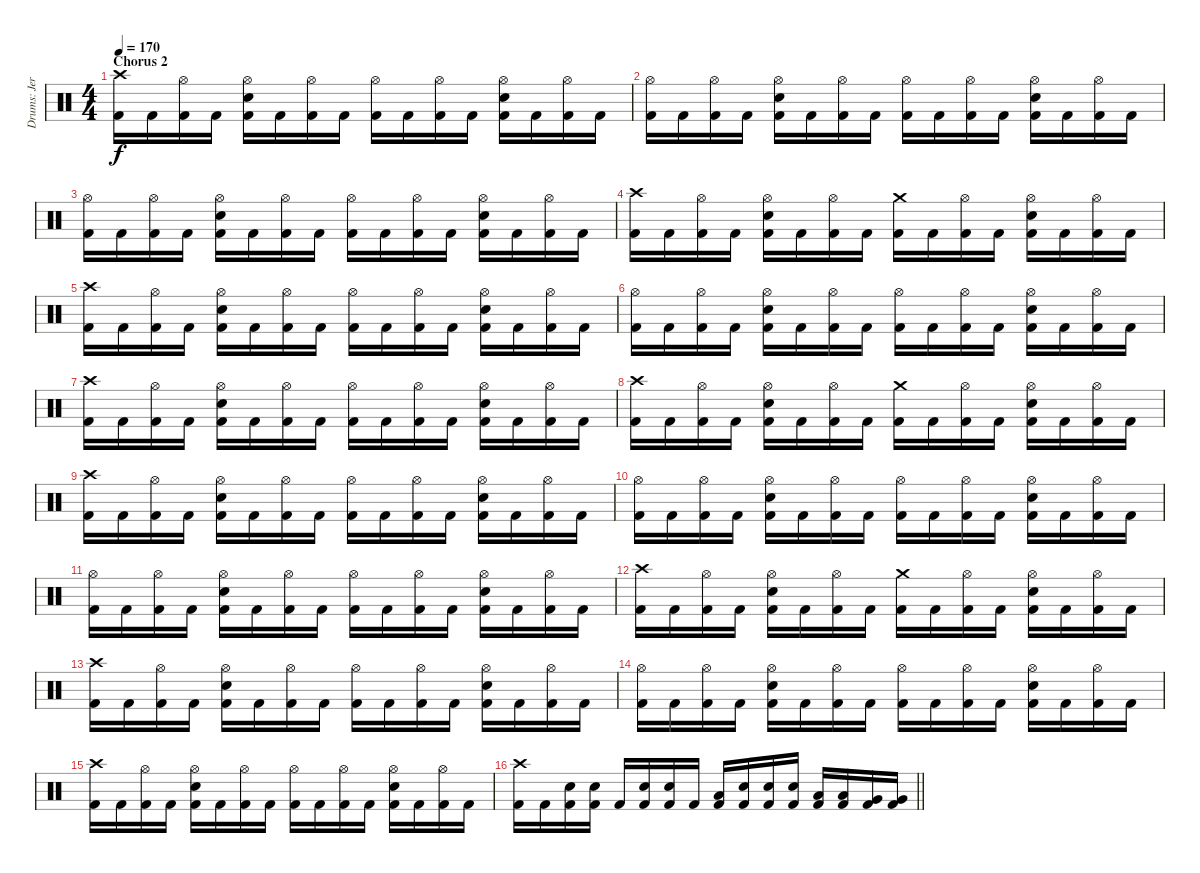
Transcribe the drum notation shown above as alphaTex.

\track ("Drums: Jere Luokkamäki" "Drums: Jer") {instrument percussion}
\staff {score}
\articulation defaults
\ts (4 4)
\section ("" "Chorus 2")
\tempo 170
\clef neutral
\ks aminor
("Crash high (hit)" "Kick (hit) 2").16{dy f} "Kick (hit) 2".16 ("Hi-Hat (open)" "Kick (hit) 2").16 "Kick (hit) 2".16 ("Hi-Hat (open)" "Electric Snare (hit)" "Kick (hit) 2").16 "Kick (hit) 2".16 ("Hi-Hat (open)" "Kick (hit) 2").16 "Kick (hit) 2".16 ("Hi-Hat (open)" "Kick (hit) 2").16 "Kick (hit) 2".16 ("Hi-Hat (open)" "Kick (hit) 2").16 "Kick (hit) 2".16 ("Hi-Hat (open)" "Electric Snare (hit)" "Kick (hit) 2").16 "Kick (hit) 2".16 ("Hi-Hat (open)" "Kick (hit) 2").16 "Kick (hit) 2".16 |
("Hi-Hat (open)" "Kick (hit) 2").16 "Kick (hit) 2".16 ("Hi-Hat (open)" "Kick (hit) 2").16 "Kick (hit) 2".16 ("Hi-Hat (open)" "Electric Snare (hit)" "Kick (hit) 2").16 "Kick (hit) 2".16 ("Hi-Hat (open)" "Kick (hit) 2").16 "Kick (hit) 2".16 ("Hi-Hat (open)" "Kick (hit) 2").16 "Kick (hit) 2".16 ("Hi-Hat (open)" "Kick (hit) 2").16 "Kick (hit) 2".16 ("Hi-Hat (open)" "Electric Snare (hit)" "Kick (hit) 2").16 "Kick (hit) 2".16 ("Hi-Hat (open)" "Kick (hit) 2").16 "Kick (hit) 2".16 |
("Hi-Hat (open)" "Kick (hit) 2").16 "Kick (hit) 2".16 ("Hi-Hat (open)" "Kick (hit) 2").16 "Kick (hit) 2".16 ("Hi-Hat (open)" "Electric Snare (hit)" "Kick (hit) 2").16 "Kick (hit) 2".16 ("Hi-Hat (open)" "Kick (hit) 2").16 "Kick (hit) 2".16 ("Hi-Hat (open)" "Kick (hit) 2").16 "Kick (hit) 2".16 ("Hi-Hat (open)" "Kick (hit) 2").16 "Kick (hit) 2".16 ("Hi-Hat (open)" "Electric Snare (hit)" "Kick (hit) 2").16 "Kick (hit) 2".16 ("Hi-Hat (open)" "Kick (hit) 2").16 "Kick (hit) 2".16 |
("Crash high (hit)" "Kick (hit) 2").16 "Kick (hit) 2".16 ("Hi-Hat (open)" "Kick (hit) 2").16 "Kick (hit) 2".16 ("Hi-Hat (open)" "Electric Snare (hit)" "Kick (hit) 2").16 "Kick (hit) 2".16 ("Hi-Hat (open)" "Kick (hit) 2").16 "Kick (hit) 2".16 ("Crash medium (hit)" "Kick (hit) 2").16 "Kick (hit) 2".16 ("Hi-Hat (open)" "Kick (hit) 2").16 "Kick (hit) 2".16 ("Hi-Hat (open)" "Electric Snare (hit)" "Kick (hit) 2").16 "Kick (hit) 2".16 ("Hi-Hat (open)" "Kick (hit) 2").16 "Kick (hit) 2".16 |
("Crash high (hit)" "Kick (hit) 2").16 "Kick (hit) 2".16 ("Hi-Hat (open)" "Kick (hit) 2").16 "Kick (hit) 2".16 ("Hi-Hat (open)" "Electric Snare (hit)" "Kick (hit) 2").16 "Kick (hit) 2".16 ("Hi-Hat (open)" "Kick (hit) 2").16 "Kick (hit) 2".16 ("Hi-Hat (open)" "Kick (hit) 2").16 "Kick (hit) 2".16 ("Hi-Hat (open)" "Kick (hit) 2").16 "Kick (hit) 2".16 ("Hi-Hat (open)" "Electric Snare (hit)" "Kick (hit) 2").16 "Kick (hit) 2".16 ("Hi-Hat (open)" "Kick (hit) 2").16 "Kick (hit) 2".16 |
("Hi-Hat (open)" "Kick (hit) 2").16 "Kick (hit) 2".16 ("Hi-Hat (open)" "Kick (hit) 2").16 "Kick (hit) 2".16 ("Hi-Hat (open)" "Electric Snare (hit)" "Kick (hit) 2").16 "Kick (hit) 2".16 ("Hi-Hat (open)" "Kick (hit) 2").16 "Kick (hit) 2".16 ("Hi-Hat (open)" "Kick (hit) 2").16 "Kick (hit) 2".16 ("Hi-Hat (open)" "Kick (hit) 2").16 "Kick (hit) 2".16 ("Hi-Hat (open)" "Electric Snare (hit)" "Kick (hit) 2").16 "Kick (hit) 2".16 ("Hi-Hat (open)" "Kick (hit) 2").16 "Kick (hit) 2".16 |
("Crash high (hit)" "Kick (hit) 2").16 "Kick (hit) 2".16 ("Hi-Hat (open)" "Kick (hit) 2").16 "Kick (hit) 2".16 ("Hi-Hat (open)" "Electric Snare (hit)" "Kick (hit) 2").16 "Kick (hit) 2".16 ("Hi-Hat (open)" "Kick (hit) 2").16 "Kick (hit) 2".16 ("Hi-Hat (open)" "Kick (hit) 2").16 "Kick (hit) 2".16 ("Hi-Hat (open)" "Kick (hit) 2").16 "Kick (hit) 2".16 ("Hi-Hat (open)" "Electric Snare (hit)" "Kick (hit) 2").16 "Kick (hit) 2".16 ("Hi-Hat (open)" "Kick (hit) 2").16 "Kick (hit) 2".16 |
("Crash high (hit)" "Kick (hit) 2").16 "Kick (hit) 2".16 ("Hi-Hat (open)" "Kick (hit) 2").16 "Kick (hit) 2".16 ("Hi-Hat (open)" "Electric Snare (hit)" "Kick (hit) 2").16 "Kick (hit) 2".16 ("Hi-Hat (open)" "Kick (hit) 2").16 "Kick (hit) 2".16 ("Crash medium (hit)" "Kick (hit) 2").16 "Kick (hit) 2".16 ("Hi-Hat (open)" "Kick (hit) 2").16 "Kick (hit) 2".16 ("Hi-Hat (open)" "Electric Snare (hit)" "Kick (hit) 2").16 "Kick (hit) 2".16 ("Hi-Hat (open)" "Kick (hit) 2").16 "Kick (hit) 2".16 |
("Crash high (hit)" "Kick (hit) 2").16 "Kick (hit) 2".16 ("Hi-Hat (open)" "Kick (hit) 2").16 "Kick (hit) 2".16 ("Hi-Hat (open)" "Electric Snare (hit)" "Kick (hit) 2").16 "Kick (hit) 2".16 ("Hi-Hat (open)" "Kick (hit) 2").16 "Kick (hit) 2".16 ("Hi-Hat (open)" "Kick (hit) 2").16 "Kick (hit) 2".16 ("Hi-Hat (open)" "Kick (hit) 2").16 "Kick (hit) 2".16 ("Hi-Hat (open)" "Electric Snare (hit)" "Kick (hit) 2").16 "Kick (hit) 2".16 ("Hi-Hat (open)" "Kick (hit) 2").16 "Kick (hit) 2".16 |
("Hi-Hat (open)" "Kick (hit) 2").16 "Kick (hit) 2".16 ("Hi-Hat (open)" "Kick (hit) 2").16 "Kick (hit) 2".16 ("Hi-Hat (open)" "Electric Snare (hit)" "Kick (hit) 2").16 "Kick (hit) 2".16 ("Hi-Hat (open)" "Kick (hit) 2").16 "Kick (hit) 2".16 ("Hi-Hat (open)" "Kick (hit) 2").16 "Kick (hit) 2".16 ("Hi-Hat (open)" "Kick (hit) 2").16 "Kick (hit) 2".16 ("Hi-Hat (open)" "Electric Snare (hit)" "Kick (hit) 2").16 "Kick (hit) 2".16 ("Hi-Hat (open)" "Kick (hit) 2").16 "Kick (hit) 2".16 |
("Hi-Hat (open)" "Kick (hit) 2").16 "Kick (hit) 2".16 ("Hi-Hat (open)" "Kick (hit) 2").16 "Kick (hit) 2".16 ("Hi-Hat (open)" "Electric Snare (hit)" "Kick (hit) 2").16 "Kick (hit) 2".16 ("Hi-Hat (open)" "Kick (hit) 2").16 "Kick (hit) 2".16 ("Hi-Hat (open)" "Kick (hit) 2").16 "Kick (hit) 2".16 ("Hi-Hat (open)" "Kick (hit) 2").16 "Kick (hit) 2".16 ("Hi-Hat (open)" "Electric Snare (hit)" "Kick (hit) 2").16 "Kick (hit) 2".16 ("Hi-Hat (open)" "Kick (hit) 2").16 "Kick (hit) 2".16 |
("Crash high (hit)" "Kick (hit) 2").16 "Kick (hit) 2".16 ("Hi-Hat (open)" "Kick (hit) 2").16 "Kick (hit) 2".16 ("Hi-Hat (open)" "Electric Snare (hit)" "Kick (hit) 2").16 "Kick (hit) 2".16 ("Hi-Hat (open)" "Kick (hit) 2").16 "Kick (hit) 2".16 ("Crash medium (hit)" "Kick (hit) 2").16 "Kick (hit) 2".16 ("Hi-Hat (open)" "Kick (hit) 2").16 "Kick (hit) 2".16 ("Hi-Hat (open)" "Electric Snare (hit)" "Kick (hit) 2").16 "Kick (hit) 2".16 ("Hi-Hat (open)" "Kick (hit) 2").16 "Kick (hit) 2".16 |
("Crash high (hit)" "Kick (hit) 2").16 "Kick (hit) 2".16 ("Hi-Hat (open)" "Kick (hit) 2").16 "Kick (hit) 2".16 ("Hi-Hat (open)" "Electric Snare (hit)" "Kick (hit) 2").16 "Kick (hit) 2".16 ("Hi-Hat (open)" "Kick (hit) 2").16 "Kick (hit) 2".16 ("Hi-Hat (open)" "Kick (hit) 2").16 "Kick (hit) 2".16 ("Hi-Hat (open)" "Kick (hit) 2").16 "Kick (hit) 2".16 ("Hi-Hat (open)" "Electric Snare (hit)" "Kick (hit) 2").16 "Kick (hit) 2".16 ("Hi-Hat (open)" "Kick (hit) 2").16 "Kick (hit) 2".16 |
("Hi-Hat (open)" "Kick (hit) 2").16 "Kick (hit) 2".16 ("Hi-Hat (open)" "Kick (hit) 2").16 "Kick (hit) 2".16 ("Hi-Hat (open)" "Electric Snare (hit)" "Kick (hit) 2").16 "Kick (hit) 2".16 ("Hi-Hat (open)" "Kick (hit) 2").16 "Kick (hit) 2".16 ("Hi-Hat (open)" "Kick (hit) 2").16 "Kick (hit) 2".16 ("Hi-Hat (open)" "Kick (hit) 2").16 "Kick (hit) 2".16 ("Hi-Hat (open)" "Electric Snare (hit)" "Kick (hit) 2").16 "Kick (hit) 2".16 ("Hi-Hat (open)" "Kick (hit) 2").16 "Kick (hit) 2".16 |
("Crash high (hit)" "Kick (hit) 2").16 "Kick (hit) 2".16 ("Hi-Hat (open)" "Kick (hit) 2").16 "Kick (hit) 2".16 ("Hi-Hat (open)" "Electric Snare (hit)" "Kick (hit) 2").16 "Kick (hit) 2".16 ("Hi-Hat (open)" "Kick (hit) 2").16 "Kick (hit) 2".16 ("Hi-Hat (open)" "Kick (hit) 2").16 "Kick (hit) 2".16 ("Hi-Hat (open)" "Kick (hit) 2").16 "Kick (hit) 2".16 ("Hi-Hat (open)" "Electric Snare (hit)" "Kick (hit) 2").16 "Kick (hit) 2".16 ("Hi-Hat (open)" "Kick (hit) 2").16 "Kick (hit) 2".16 |
\barLineRight lightlight
("Crash high (hit)" "Kick (hit) 2").16 "Kick (hit) 2".16 ("Electric Snare (hit)" "Kick (hit) 2").16 ("Electric Snare (hit)" "Kick (hit) 2").16 "Kick (hit) 2".16 ("Electric Snare (hit)" "Kick (hit) 2").16 ("Electric Snare (hit)" "Kick (hit) 2").16 "Kick (hit) 2".16 ("Low Tom (hit)" "Kick (hit) 2").16 ("Electric Snare (hit)" "Kick (hit) 2").16 ("Electric Snare (hit)" "Kick (hit) 2").16 ("Electric Snare (hit)" "Kick (hit) 2").16 ("Low Tom (hit)" "Kick (hit) 2").16 ("Low Tom (hit)" "Kick (hit) 2").16 ("Very Low Tom (hit)" "Kick (hit) 2").16 ("Very Low Tom (hit)" "Kick (hit) 2").16
